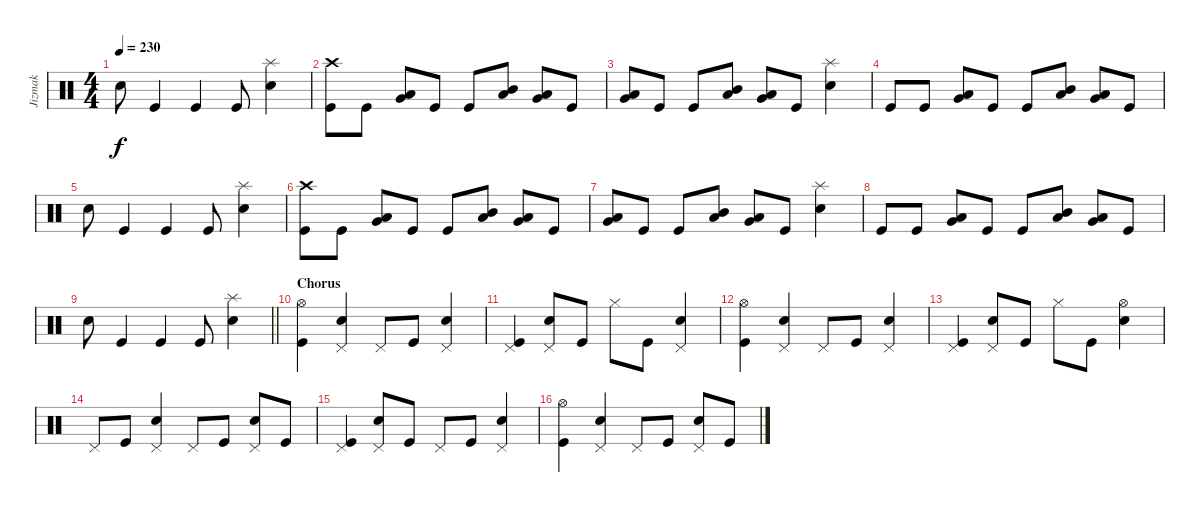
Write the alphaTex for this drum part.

\track ("Jizmak" "Jizmak") {instrument percussion}
\staff {score}
\articulation defaults
\ts (4 4)
\tempo 230
\clef neutral
\ks c "Snare (hit) 2".8{dy f} "Kick (hit)".4 "Kick (hit)".4 "Kick (hit)".8
("Splash (hit)" "Snare (hit) 2").4 |
("Crash high (hit)" "Kick (hit)").8 "Kick (hit)".8 ("Low Tom (hit)" "Very Low Tom (hit)").8 "Kick (hit)".8 "Kick (hit)".8 ("Mid Tom (hit)" "Low Tom (hit)").8 ("Low Tom (hit)" "Very Low Tom (hit)").8 "Kick (hit)".8 |
("Low Tom (hit)" "Very Low Tom (hit)").8 "Kick (hit)".8 "Kick (hit)".8 ("Mid Tom (hit)" "Low Tom (hit)").8 ("Low Tom (hit)" "Very Low Tom (hit)").8 "Kick (hit)".8 ("Splash (hit)" "Snare (hit) 2").4 |
"Kick (hit)".8 "Kick (hit)".8 ("Low Tom (hit)" "Very Low Tom (hit)").8 "Kick (hit)".8 "Kick (hit)".8 ("Mid Tom (hit)" "Low Tom (hit)").8 ("Low Tom (hit)" "Very Low Tom (hit)").8 "Kick (hit)".8 |
"Snare (hit) 2".8 "Kick (hit)".4 "Kick (hit)".4 "Kick (hit)".8 ("Splash (hit)" "Snare (hit) 2").4 |
("Crash high (hit)" "Kick (hit)").8 "Kick (hit)".8 ("Low Tom (hit)" "Very Low Tom (hit)").8 "Kick (hit)".8 "Kick (hit)".8 ("Mid Tom (hit)" "Low Tom (hit)").8 ("Low Tom (hit)" "Very Low Tom (hit)").8 "Kick (hit)".8 |
("Low Tom (hit)" "Very Low Tom (hit)").8 "Kick (hit)".8 "Kick (hit)".8 ("Mid Tom (hit)" "Low Tom (hit)").8 ("Low Tom (hit)" "Very Low Tom (hit)").8 "Kick (hit)".8 ("Splash (hit)" "Snare (hit) 2").4 |
"Kick (hit)".8 "Kick (hit)".8 ("Low Tom (hit)" "Very Low Tom (hit)").8 "Kick (hit)".8 "Kick (hit)".8 ("Mid Tom (hit)" "Low Tom (hit)").8 ("Low Tom (hit)" "Very Low Tom (hit)").8 "Kick (hit)".8 |
\barLineRight lightlight "Snare (hit) 2".8 "Kick (hit)".4 "Kick (hit)".4 "Kick (hit)".8
("Splash (hit)" "Snare (hit) 2").4 |
\section ("" "Chorus")
("Hi-Hat (open)" "Kick (hit)").4 ("Pedal Hi-Hat (hit)" "Snare (hit) 2").4 "Pedal Hi-Hat (hit)".8 "Kick (hit)".8 ("Pedal Hi-Hat (hit)" "Snare (hit) 2").4 |
("Pedal Hi-Hat (hit)" "Kick (hit)").4 ("Pedal Hi-Hat (hit)" "Snare (hit) 2").8 "Kick (hit)".8 "Hi-Hat (closed)".8 "Kick (hit)".8 ("Pedal Hi-Hat (hit)" "Snare (hit) 2").4 |
("Hi-Hat (open)" "Kick (hit)").4 ("Pedal Hi-Hat (hit)" "Snare (hit) 2").4 "Pedal Hi-Hat (hit)".8 "Kick (hit)".8 ("Pedal Hi-Hat (hit)" "Snare (hit) 2").4 |
("Pedal Hi-Hat (hit)" "Kick (hit)").4 ("Pedal Hi-Hat (hit)" "Snare (hit) 2").8 "Kick (hit)".8 "Hi-Hat (closed)".8 "Kick (hit)".8 ("Hi-Hat (open)" "Snare (hit) 2").4 |
"Pedal Hi-Hat (hit)".8 "Kick (hit)".8 ("Pedal Hi-Hat (hit)" "Snare (hit) 2").4 "Pedal Hi-Hat (hit)".8 "Kick (hit)".8 ("Pedal Hi-Hat (hit)" "Snare (hit) 2").8 "Kick (hit)".8 |
("Pedal Hi-Hat (hit)" "Kick (hit)").4 ("Pedal Hi-Hat (hit)" "Snare (hit) 2").8 "Kick (hit)".8 "Pedal Hi-Hat (hit)".8 "Kick (hit)".8 ("Pedal Hi-Hat (hit)" "Snare (hit) 2").4 |
("Hi-Hat (open)" "Kick (hit)").4 ("Pedal Hi-Hat (hit)" "Snare (hit) 2").4 "Pedal Hi-Hat (hit)".8 "Kick (hit)".8 ("Pedal Hi-Hat (hit)" "Snare (hit) 2").8 "Kick (hit)".8
